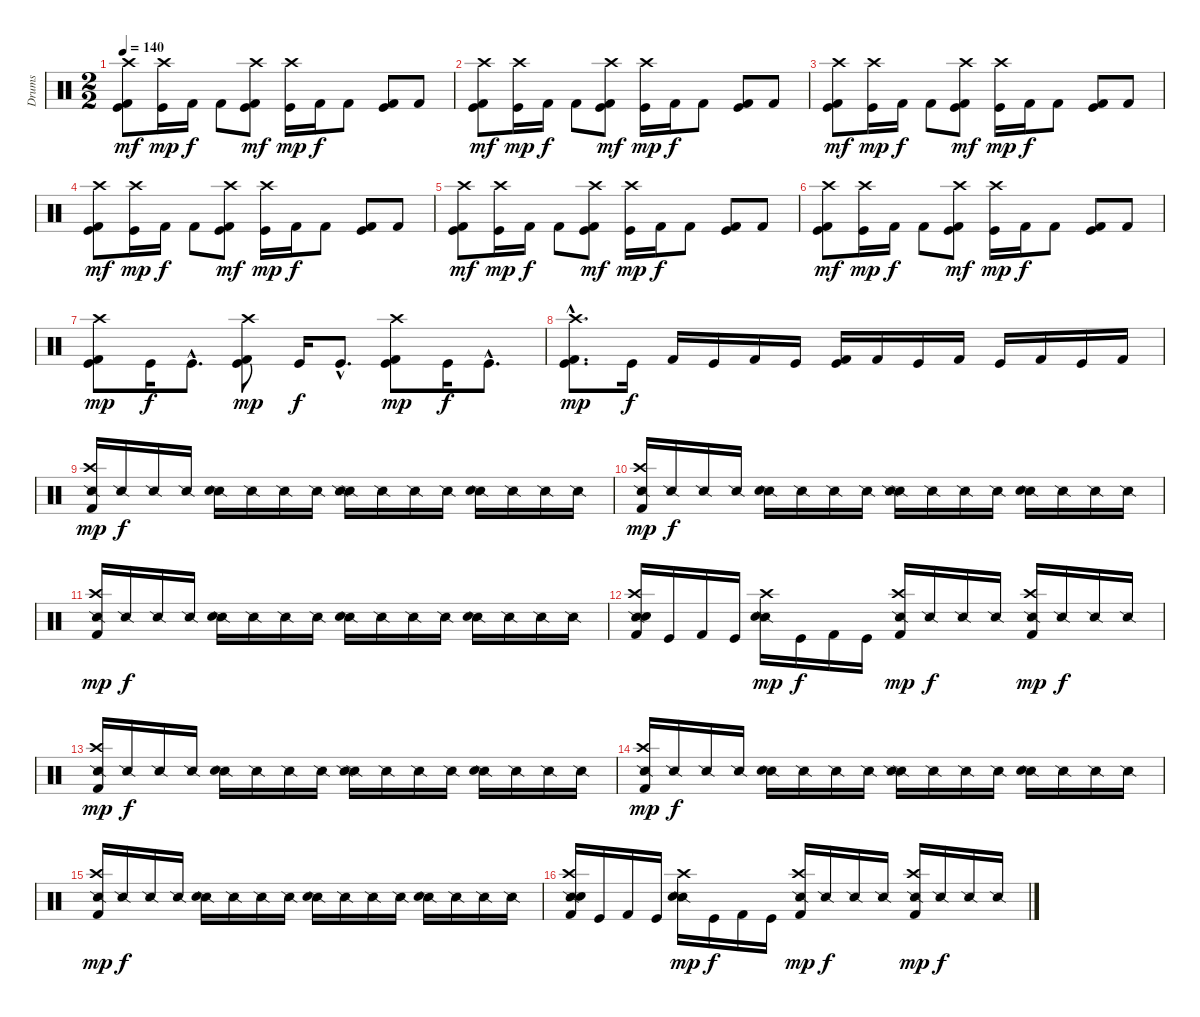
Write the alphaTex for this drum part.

\track ("Drums" "Drums") {instrument percussion}
\staff {score}
\articulation defaults
\ts (2 2)
\tempo 140
\clef neutral
\ks c
("Kick (hit)" "Kick (hit) 2" "Crash high (hit)").8{dy mf} ("Kick (hit)" "Crash high (hit)").16{dy mp} "Kick (hit) 2".16{dy f} "Kick (hit) 2".8 ("Kick (hit)" "Kick (hit) 2" "Crash high (hit)").8{dy mf} ("Kick (hit)" "Crash high (hit)").16{dy mp} "Kick (hit) 2".16{dy f} "Kick (hit) 2".8 ("Kick (hit)" "Kick (hit) 2").8 "Kick (hit) 2".8 |
("Kick (hit)" "Kick (hit) 2" "Crash high (hit)").8{dy mf} ("Kick (hit)" "Crash high (hit)").16{dy mp} "Kick (hit) 2".16{dy f} "Kick (hit) 2".8 ("Kick (hit)" "Kick (hit) 2" "Crash high (hit)").8{dy mf} ("Kick (hit)" "Crash high (hit)").16{dy mp} "Kick (hit) 2".16{dy f} "Kick (hit) 2".8 ("Kick (hit)" "Kick (hit) 2").8 "Kick (hit) 2".8 |
("Kick (hit)" "Kick (hit) 2" "Crash high (hit)").8{dy mf} ("Kick (hit)" "Crash high (hit)").16{dy mp} "Kick (hit) 2".16{dy f} "Kick (hit) 2".8 ("Kick (hit)" "Kick (hit) 2" "Crash high (hit)").8{dy mf} ("Kick (hit)" "Crash high (hit)").16{dy mp} "Kick (hit) 2".16{dy f} "Kick (hit) 2".8 ("Kick (hit)" "Kick (hit) 2").8 "Kick (hit) 2".8 |
("Kick (hit)" "Kick (hit) 2" "Crash high (hit)").8{dy mf} ("Kick (hit)" "Crash high (hit)").16{dy mp} "Kick (hit) 2".16{dy f} "Kick (hit) 2".8 ("Kick (hit)" "Kick (hit) 2" "Crash high (hit)").8{dy mf} ("Kick (hit)" "Crash high (hit)").16{dy mp} "Kick (hit) 2".16{dy f} "Kick (hit) 2".8 ("Kick (hit)" "Kick (hit) 2").8 "Kick (hit) 2".8 |
("Kick (hit)" "Kick (hit) 2" "Crash high (hit)").8{dy mf} ("Kick (hit)" "Crash high (hit)").16{dy mp} "Kick (hit) 2".16{dy f} "Kick (hit) 2".8 ("Kick (hit)" "Kick (hit) 2" "Crash high (hit)").8{dy mf} ("Kick (hit)" "Crash high (hit)").16{dy mp} "Kick (hit) 2".16{dy f} "Kick (hit) 2".8 ("Kick (hit)" "Kick (hit) 2").8 "Kick (hit) 2".8 |
("Kick (hit)" "Kick (hit) 2" "Crash high (hit)").8{dy mf} ("Kick (hit)" "Crash high (hit)").16{dy mp} "Kick (hit) 2".16{dy f} "Kick (hit) 2".8 ("Kick (hit)" "Kick (hit) 2" "Crash high (hit)").8{dy mf} ("Kick (hit)" "Crash high (hit)").16{dy mp} "Kick (hit) 2".16{dy f} "Kick (hit) 2".8 ("Kick (hit)" "Kick (hit) 2").8 "Kick (hit) 2".8 |
("Kick (hit) 2" "Kick (hit)" "Crash high (hit)").8{dy mp} "Kick (hit)".16{dy f} "Kick (hit)"{hac}.8{d} ("Kick (hit) 2" "Kick (hit)" "Crash high (hit)").8{dy mp} "Kick (hit)".16{dy f} "Kick (hit)"{hac}.8{d} ("Kick (hit) 2" "Kick (hit)" "Crash high (hit)").8{dy mp} "Kick (hit)".16{dy f} "Kick (hit)"{hac}.8{d} |
("Kick (hit) 2"{hac} "Kick (hit)"{hac} "Crash high (hit)"{hac}).8{d dy mp} "Kick (hit)".16{dy f} "Kick (hit) 2".16 "Kick (hit)".16 "Kick (hit) 2".16 "Kick (hit)".16 ("Kick (hit)" "Kick (hit) 2").16 "Kick (hit) 2".16 "Kick (hit)".16 "Kick (hit) 2".16 "Kick (hit)".16 "Kick (hit) 2".16 "Kick (hit)".16 "Kick (hit) 2".16 |
("Snare (side stick) 2" "Kick (hit) 2" "Crash high (hit)").16{dy mp} "Snare (side stick) 2".16{dy f} "Snare (side stick) 2".16 "Snare (side stick) 2".16 ("Snare (side stick) 2" "Snare (hit) 2").16 "Snare (side stick) 2".16 "Snare (side stick) 2".16 "Snare (side stick) 2".16 ("Snare (side stick) 2" "Snare (side stick) 2").16 "Snare (side stick) 2".16 "Snare (side stick) 2".16 "Snare (side stick) 2".16 ("Snare (side stick) 2" "Snare (hit) 2").16 "Snare (side stick) 2".16 "Snare (side stick) 2".16 "Snare (side stick) 2".16 |
("Snare (side stick) 2" "Kick (hit) 2" "Crash high (hit)").16{dy mp} "Snare (side stick) 2".16{dy f} "Snare (side stick) 2".16 "Snare (side stick) 2".16 ("Snare (side stick) 2" "Snare (hit) 2").16 "Snare (side stick) 2".16 "Snare (side stick) 2".16 "Snare (side stick) 2".16 ("Snare (side stick) 2" "Snare (side stick) 2").16 "Snare (side stick) 2".16 "Snare (side stick) 2".16 "Snare (side stick) 2".16 ("Snare (side stick) 2" "Snare (hit) 2").16 "Snare (side stick) 2".16 "Snare (side stick) 2".16 "Snare (side stick) 2".16 |
("Snare (side stick) 2" "Kick (hit) 2" "Crash high (hit)").16{dy mp} "Snare (side stick) 2".16{dy f} "Snare (side stick) 2".16 "Snare (side stick) 2".16 ("Snare (side stick) 2" "Snare (hit) 2").16 "Snare (side stick) 2".16 "Snare (side stick) 2".16 "Snare (side stick) 2".16 ("Snare (side stick) 2" "Snare (hit) 2").16 "Snare (side stick) 2".16 "Snare (side stick) 2".16 "Snare (side stick) 2".16 ("Snare (side stick) 2" "Snare (hit) 2").16 "Snare (side stick) 2".16 "Snare (side stick) 2".16 "Snare (side stick) 2".16 |
("Snare (side stick) 2" "Snare (hit) 2" "Kick (hit) 2" "Crash high (hit)").16 "Kick (hit)".16 "Kick (hit) 2".16 "Kick (hit)".16 ("Snare (side stick) 2" "Snare (hit) 2" "Crash high (hit)").16{dy mp} "Kick (hit)".16{dy f} "Kick (hit) 2".16 "Kick (hit)".16 ("Snare (side stick) 2" "Kick (hit) 2" "Crash high (hit)").16{dy mp} "Snare (side stick) 2".16{dy f} "Snare (side stick) 2".16 "Snare (side stick) 2".16 ("Snare (side stick) 2" "Kick (hit) 2" "Crash high (hit)").16{dy mp} "Snare (side stick) 2".16{dy f} "Snare (side stick) 2".16 "Snare (side stick) 2".16 |
("Snare (side stick) 2" "Kick (hit) 2" "Crash high (hit)").16{dy mp} "Snare (side stick) 2".16{dy f} "Snare (side stick) 2".16 "Snare (side stick) 2".16 ("Snare (side stick) 2" "Snare (hit) 2").16 "Snare (side stick) 2".16 "Snare (side stick) 2".16 "Snare (side stick) 2".16 ("Snare (side stick) 2" "Snare (side stick) 2").16 "Snare (side stick) 2".16 "Snare (side stick) 2".16 "Snare (side stick) 2".16 ("Snare (side stick) 2" "Snare (hit) 2").16 "Snare (side stick) 2".16 "Snare (side stick) 2".16 "Snare (side stick) 2".16 |
("Snare (side stick) 2" "Kick (hit) 2" "Crash high (hit)").16{dy mp} "Snare (side stick) 2".16{dy f} "Snare (side stick) 2".16 "Snare (side stick) 2".16 ("Snare (side stick) 2" "Snare (hit) 2").16 "Snare (side stick) 2".16 "Snare (side stick) 2".16 "Snare (side stick) 2".16 ("Snare (side stick) 2" "Snare (side stick) 2").16 "Snare (side stick) 2".16 "Snare (side stick) 2".16 "Snare (side stick) 2".16 ("Snare (side stick) 2" "Snare (hit) 2").16 "Snare (side stick) 2".16 "Snare (side stick) 2".16 "Snare (side stick) 2".16 |
("Snare (side stick) 2" "Kick (hit) 2" "Crash high (hit)").16{dy mp} "Snare (side stick) 2".16{dy f} "Snare (side stick) 2".16 "Snare (side stick) 2".16 ("Snare (side stick) 2" "Snare (hit) 2").16 "Snare (side stick) 2".16 "Snare (side stick) 2".16 "Snare (side stick) 2".16 ("Snare (side stick) 2" "Snare (hit) 2").16 "Snare (side stick) 2".16 "Snare (side stick) 2".16 "Snare (side stick) 2".16 ("Snare (side stick) 2" "Snare (hit) 2").16 "Snare (side stick) 2".16 "Snare (side stick) 2".16 "Snare (side stick) 2".16 |
("Snare (side stick) 2" "Snare (hit) 2" "Kick (hit) 2" "Crash high (hit)").16 "Kick (hit)".16 "Kick (hit) 2".16 "Kick (hit)".16 ("Snare (side stick) 2" "Snare (hit) 2" "Crash high (hit)").16{dy mp} "Kick (hit)".16{dy f} "Kick (hit) 2".16 "Kick (hit)".16 ("Snare (side stick) 2" "Kick (hit) 2" "Crash high (hit)").16{dy mp} "Snare (side stick) 2".16{dy f} "Snare (side stick) 2".16 "Snare (side stick) 2".16 ("Snare (side stick) 2" "Kick (hit) 2" "Crash high (hit)").16{dy mp} "Snare (side stick) 2".16{dy f} "Snare (side stick) 2".16 "Snare (side stick) 2".16
